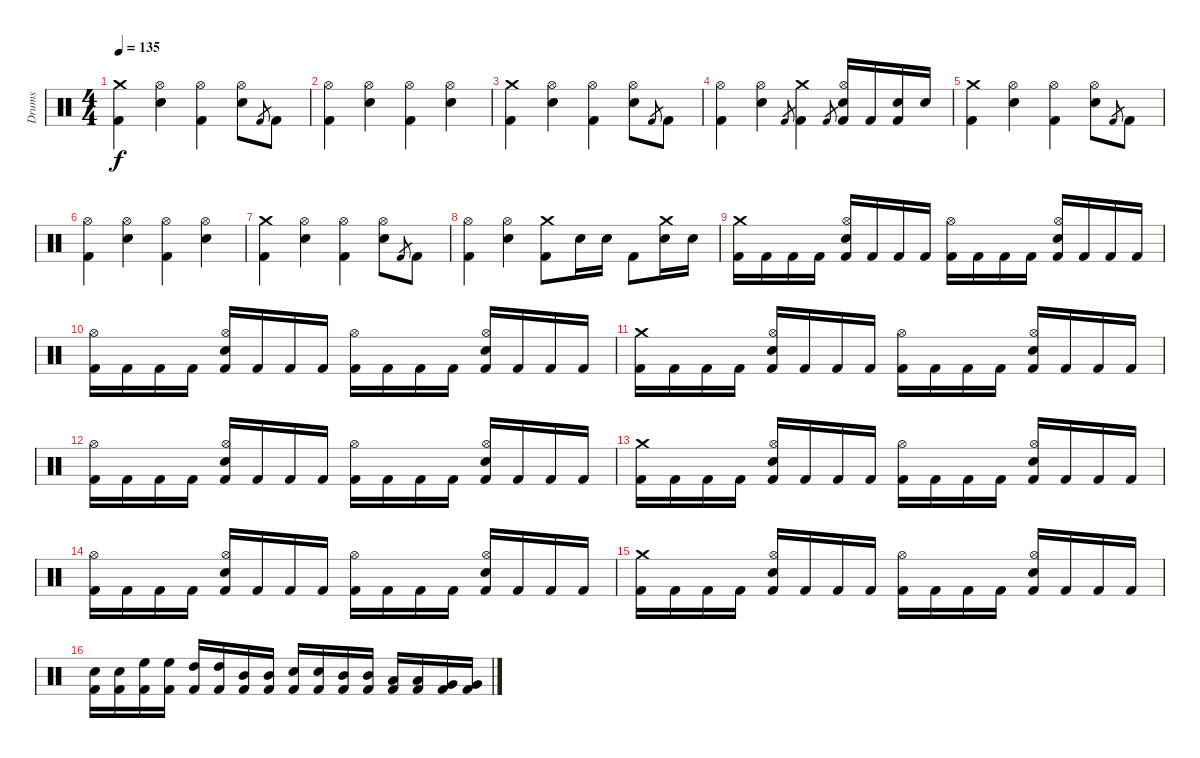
\track ("Drums" "Drums") {instrument percussion}
\staff {score}
\articulation defaults
\ts (4 4)
\tempo 135
\clef neutral
\ks c
("Crash medium (hit)" "Kick (hit) 2").4{dy f} ("Hi-Hat (open)" "Snare (hit) 2").4 ("Hi-Hat (open)" "Kick (hit) 2").4 ("Hi-Hat (open)" "Snare (hit) 2").8 "Kick (hit) 2".8{gr} "Kick (hit) 2".8 |
("Hi-Hat (open)" "Kick (hit) 2").4 ("Hi-Hat (open)" "Snare (hit) 2").4 ("Hi-Hat (open)" "Kick (hit) 2").4 ("Hi-Hat (open)" "Snare (hit) 2").4 |
("Crash medium (hit)" "Kick (hit) 2").4 ("Hi-Hat (open)" "Snare (hit) 2").4 ("Hi-Hat (open)" "Kick (hit) 2").4 ("Hi-Hat (open)" "Snare (hit) 2").8 "Kick (hit) 2".8{gr} "Kick (hit) 2".8 |
("Hi-Hat (open)" "Kick (hit) 2").4 ("Hi-Hat (open)" "Snare (hit) 2").4 "Kick (hit) 2".8{gr} ("Crash medium (hit)" "Kick (hit) 2").4 "Kick (hit) 2".8{gr} ("Hi-Hat (open)" "Snare (hit) 2" "Kick (hit) 2").16 "Kick (hit) 2".16 ("Snare (hit) 2" "Kick (hit) 2").16 "Snare (hit) 2".16 |
("Crash medium (hit)" "Kick (hit) 2").4 ("Hi-Hat (open)" "Snare (hit) 2").4 ("Hi-Hat (open)" "Kick (hit) 2").4 ("Hi-Hat (open)" "Snare (hit) 2").8 "Kick (hit) 2".8{gr} "Kick (hit) 2".8 |
("Hi-Hat (open)" "Kick (hit) 2").4 ("Hi-Hat (open)" "Snare (hit) 2").4 ("Hi-Hat (open)" "Kick (hit) 2").4 ("Hi-Hat (open)" "Snare (hit) 2").4 |
("Crash medium (hit)" "Kick (hit) 2").4 ("Hi-Hat (open)" "Snare (hit) 2").4 ("Hi-Hat (open)" "Kick (hit) 2").4 ("Hi-Hat (open)" "Snare (hit) 2").8 "Kick (hit) 2".8{gr} "Kick (hit) 2".8 |
("Hi-Hat (open)" "Kick (hit) 2").4 ("Hi-Hat (open)" "Snare (hit) 2").4 ("Crash medium (hit)" "Kick (hit) 2").8 "Snare (hit) 2".16 "Snare (hit) 2".16 "Kick (hit) 2".8 ("Crash medium (hit)" "Snare (hit) 2").16 "Snare (hit) 2".16 |
("Crash medium (hit)" "Kick (hit) 2").16 "Kick (hit) 2".16 "Kick (hit) 2".16 "Kick (hit) 2".16 ("Hi-Hat (open)" "Snare (hit) 2" "Kick (hit) 2").16 "Kick (hit) 2".16 "Kick (hit) 2".16 "Kick (hit) 2".16 ("Hi-Hat (open)" "Kick (hit) 2").16 "Kick (hit) 2".16 "Kick (hit) 2".16 "Kick (hit) 2".16 ("Hi-Hat (open)" "Snare (hit) 2" "Kick (hit) 2").16 "Kick (hit) 2".16 "Kick (hit) 2".16 "Kick (hit) 2".16 |
("Hi-Hat (open)" "Kick (hit) 2").16 "Kick (hit) 2".16 "Kick (hit) 2".16 "Kick (hit) 2".16 ("Hi-Hat (open)" "Snare (hit) 2" "Kick (hit) 2").16 "Kick (hit) 2".16 "Kick (hit) 2".16 "Kick (hit) 2".16 ("Hi-Hat (open)" "Kick (hit) 2").16 "Kick (hit) 2".16 "Kick (hit) 2".16 "Kick (hit) 2".16 ("Hi-Hat (open)" "Snare (hit) 2" "Kick (hit) 2").16 "Kick (hit) 2".16 "Kick (hit) 2".16 "Kick (hit) 2".16 |
("Crash medium (hit)" "Kick (hit) 2").16 "Kick (hit) 2".16 "Kick (hit) 2".16 "Kick (hit) 2".16 ("Hi-Hat (open)" "Snare (hit) 2" "Kick (hit) 2").16 "Kick (hit) 2".16 "Kick (hit) 2".16 "Kick (hit) 2".16 ("Hi-Hat (open)" "Kick (hit) 2").16 "Kick (hit) 2".16 "Kick (hit) 2".16 "Kick (hit) 2".16 ("Hi-Hat (open)" "Snare (hit) 2" "Kick (hit) 2").16 "Kick (hit) 2".16 "Kick (hit) 2".16 "Kick (hit) 2".16 |
("Hi-Hat (open)" "Kick (hit) 2").16 "Kick (hit) 2".16 "Kick (hit) 2".16 "Kick (hit) 2".16 ("Hi-Hat (open)" "Snare (hit) 2" "Kick (hit) 2").16 "Kick (hit) 2".16 "Kick (hit) 2".16 "Kick (hit) 2".16 ("Hi-Hat (open)" "Kick (hit) 2").16 "Kick (hit) 2".16 "Kick (hit) 2".16 "Kick (hit) 2".16 ("Hi-Hat (open)" "Snare (hit) 2" "Kick (hit) 2").16 "Kick (hit) 2".16 "Kick (hit) 2".16 "Kick (hit) 2".16 |
("Crash medium (hit)" "Kick (hit) 2").16 "Kick (hit) 2".16 "Kick (hit) 2".16 "Kick (hit) 2".16 ("Hi-Hat (open)" "Snare (hit) 2" "Kick (hit) 2").16 "Kick (hit) 2".16 "Kick (hit) 2".16 "Kick (hit) 2".16 ("Hi-Hat (open)" "Kick (hit) 2").16 "Kick (hit) 2".16 "Kick (hit) 2".16 "Kick (hit) 2".16 ("Hi-Hat (open)" "Snare (hit) 2" "Kick (hit) 2").16 "Kick (hit) 2".16 "Kick (hit) 2".16 "Kick (hit) 2".16 |
("Hi-Hat (open)" "Kick (hit) 2").16 "Kick (hit) 2".16 "Kick (hit) 2".16 "Kick (hit) 2".16 ("Hi-Hat (open)" "Snare (hit) 2" "Kick (hit) 2").16 "Kick (hit) 2".16 "Kick (hit) 2".16 "Kick (hit) 2".16 ("Hi-Hat (open)" "Kick (hit) 2").16 "Kick (hit) 2".16 "Kick (hit) 2".16 "Kick (hit) 2".16 ("Hi-Hat (open)" "Snare (hit) 2" "Kick (hit) 2").16 "Kick (hit) 2".16 "Kick (hit) 2".16 "Kick (hit) 2".16 |
("Crash medium (hit)" "Kick (hit) 2").16 "Kick (hit) 2".16 "Kick (hit) 2".16 "Kick (hit) 2".16 ("Hi-Hat (open)" "Snare (hit) 2" "Kick (hit) 2").16 "Kick (hit) 2".16 "Kick (hit) 2".16 "Kick (hit) 2".16 ("Hi-Hat (open)" "Kick (hit) 2").16 "Kick (hit) 2".16 "Kick (hit) 2".16 "Kick (hit) 2".16 ("Hi-Hat (open)" "Snare (hit) 2" "Kick (hit) 2").16 "Kick (hit) 2".16 "Kick (hit) 2".16 "Kick (hit) 2".16 |
("Snare (hit) 2" "Kick (hit) 2").16 ("Snare (hit) 2" "Kick (hit) 2").16 ("High Floor Tom (hit)" "Kick (hit) 2").16 ("High Floor Tom (hit)" "Kick (hit) 2").16 ("High Tom (hit)" "Kick (hit) 2").16 ("High Tom (hit)" "Kick (hit) 2").16 ("Mid Tom (hit)" "Kick (hit) 2").16 ("Mid Tom (hit)" "Kick (hit) 2").16 ("Snare (hit) 2" "Kick (hit) 2").16 ("Snare (hit) 2" "Kick (hit) 2").16 ("Mid Tom (hit)" "Kick (hit) 2").16 ("Mid Tom (hit)" "Kick (hit) 2").16 ("Low Tom (hit)" "Kick (hit) 2").16 ("Low Tom (hit)" "Kick (hit) 2").16 ("Very Low Tom (hit)" "Kick (hit) 2").16 ("Very Low Tom (hit)" "Kick (hit) 2").16
